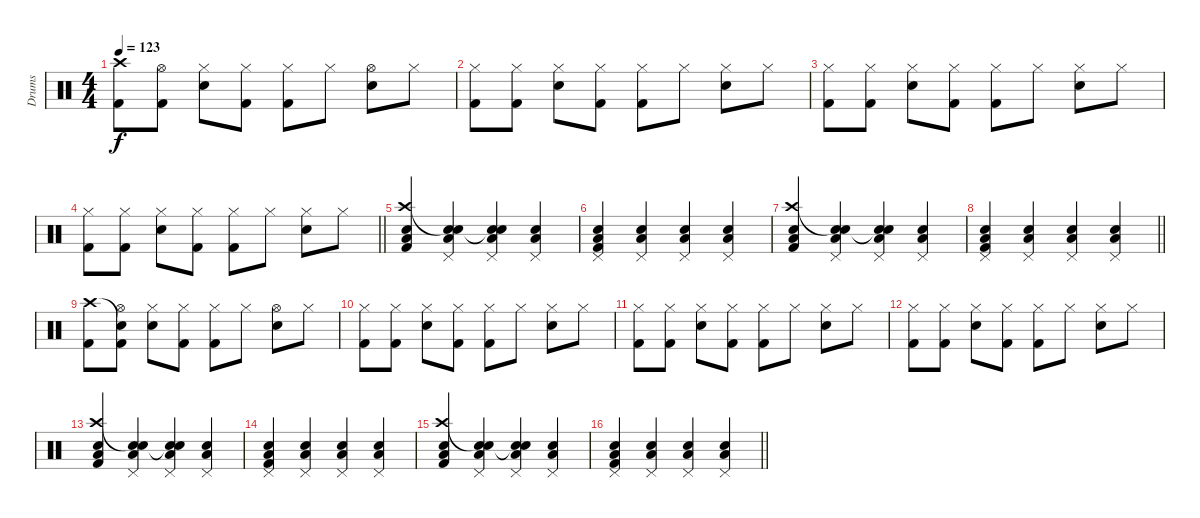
\track ("Drums" "Drums") {instrument percussion}
\staff {score}
\articulation defaults
\ts (4 4)
\tempo 123
\clef neutral
\ks c
("Kick (hit) 2" "Crash high (hit)").8{dy f} ("Kick (hit) 2" "Hi-Hat (open)").8 ("Electric Snare (hit)" "Hi-Hat (closed)").8 ("Kick (hit) 2" "Hi-Hat (closed)").8 ("Kick (hit) 2" "Hi-Hat (closed)").8 "Hi-Hat (closed)".8 ("Electric Snare (hit)" "Hi-Hat (open)").8 "Hi-Hat (closed)".8 |
("Kick (hit) 2" "Hi-Hat (closed)").8 ("Kick (hit) 2" "Hi-Hat (closed)").8 ("Electric Snare (hit)" "Hi-Hat (closed)").8 ("Kick (hit) 2" "Hi-Hat (closed)").8 ("Kick (hit) 2" "Hi-Hat (closed)").8 "Hi-Hat (closed)".8 ("Electric Snare (hit)" "Hi-Hat (closed)").8 "Hi-Hat (closed)".8 |
("Kick (hit) 2" "Hi-Hat (closed)").8 ("Kick (hit) 2" "Hi-Hat (closed)").8 ("Electric Snare (hit)" "Hi-Hat (closed)").8 ("Kick (hit) 2" "Hi-Hat (closed)").8 ("Kick (hit) 2" "Hi-Hat (closed)").8 "Hi-Hat (closed)".8 ("Electric Snare (hit)" "Hi-Hat (closed)").8 "Hi-Hat (closed)".8 |
\barLineRight lightlight
("Kick (hit) 2" "Hi-Hat (closed)").8 ("Kick (hit) 2" "Hi-Hat (closed)").8 ("Electric Snare (hit)" "Hi-Hat (closed)").8 ("Kick (hit) 2" "Hi-Hat (closed)").8 ("Kick (hit) 2" "Hi-Hat (closed)").8 "Hi-Hat (closed)".8 ("Electric Snare (hit)" "Hi-Hat (closed)").8 "Hi-Hat (closed)".8 |
("Crash high (hit)" "Low Floor Tom (hit)" "Kick (hit) 2" "Snare (hit) 2").4 ("Snare (hit)"{t} "Low Floor Tom (hit)" "Pedal Hi-Hat (hit)" "Snare (hit) 2").4 ("Snare (hit)"{t} "Low Floor Tom (hit)" "Pedal Hi-Hat (hit)" "Snare (hit) 2").4 ("Low Floor Tom (hit)" "Pedal Hi-Hat (hit)" "Snare (hit) 2").4 |
("Low Floor Tom (hit)" "Kick (hit) 2" "Pedal Hi-Hat (hit)" "Snare (hit) 2").4 ("Low Floor Tom (hit)" "Pedal Hi-Hat (hit)" "Snare (hit) 2").4 ("Low Floor Tom (hit)" "Pedal Hi-Hat (hit)" "Snare (hit) 2").4 ("Low Floor Tom (hit)" "Pedal Hi-Hat (hit)" "Snare (hit) 2").4 |
("Crash high (hit)" "Low Floor Tom (hit)" "Kick (hit) 2" "Snare (hit) 2").4 ("Snare (hit)"{t} "Low Floor Tom (hit)" "Pedal Hi-Hat (hit)" "Snare (hit) 2").4 ("Snare (hit)"{t} "Low Floor Tom (hit)" "Pedal Hi-Hat (hit)" "Snare (hit) 2").4 ("Low Floor Tom (hit)" "Pedal Hi-Hat (hit)" "Snare (hit) 2").4 |
\barLineRight lightlight
("Low Floor Tom (hit)" "Kick (hit) 2" "Pedal Hi-Hat (hit)" "Snare (hit) 2").4 ("Low Floor Tom (hit)" "Pedal Hi-Hat (hit)" "Snare (hit) 2").4 ("Low Floor Tom (hit)" "Pedal Hi-Hat (hit)" "Snare (hit) 2").4 ("Low Floor Tom (hit)" "Pedal Hi-Hat (hit)" "Snare (hit) 2").4 |
("Crash high (hit)" "Kick (hit) 2").8 ("Snare (hit)"{t} "Kick (hit) 2" "Hi-Hat (open)").8 ("Electric Snare (hit)" "Hi-Hat (closed)").8 ("Kick (hit) 2" "Hi-Hat (closed)").8 ("Kick (hit) 2" "Hi-Hat (closed)").8 "Hi-Hat (closed)".8 ("Electric Snare (hit)" "Hi-Hat (open)").8 "Hi-Hat (closed)".8 |
("Kick (hit) 2" "Hi-Hat (closed)").8 ("Kick (hit) 2" "Hi-Hat (closed)").8 ("Electric Snare (hit)" "Hi-Hat (closed)").8 ("Kick (hit) 2" "Hi-Hat (closed)").8 ("Kick (hit) 2" "Hi-Hat (closed)").8 "Hi-Hat (closed)".8 ("Electric Snare (hit)" "Hi-Hat (closed)").8 "Hi-Hat (closed)".8 |
("Kick (hit) 2" "Hi-Hat (closed)").8 ("Kick (hit) 2" "Hi-Hat (closed)").8 ("Electric Snare (hit)" "Hi-Hat (closed)").8 ("Kick (hit) 2" "Hi-Hat (closed)").8 ("Kick (hit) 2" "Hi-Hat (closed)").8 "Hi-Hat (closed)".8 ("Electric Snare (hit)" "Hi-Hat (closed)").8 "Hi-Hat (closed)".8 |
("Kick (hit) 2" "Hi-Hat (closed)").8 ("Kick (hit) 2" "Hi-Hat (closed)").8 ("Electric Snare (hit)" "Hi-Hat (closed)").8 ("Kick (hit) 2" "Hi-Hat (closed)").8 ("Kick (hit) 2" "Hi-Hat (closed)").8 "Hi-Hat (closed)".8 ("Electric Snare (hit)" "Hi-Hat (closed)").8 "Hi-Hat (closed)".8 |
("Crash high (hit)" "Low Floor Tom (hit)" "Kick (hit) 2" "Snare (hit) 2").4 ("Snare (hit)"{t} "Low Floor Tom (hit)" "Pedal Hi-Hat (hit)" "Snare (hit) 2").4 ("Snare (hit)"{t} "Low Floor Tom (hit)" "Pedal Hi-Hat (hit)" "Snare (hit) 2").4 ("Low Floor Tom (hit)" "Pedal Hi-Hat (hit)" "Snare (hit) 2").4 |
("Low Floor Tom (hit)" "Kick (hit) 2" "Pedal Hi-Hat (hit)" "Snare (hit) 2").4 ("Low Floor Tom (hit)" "Pedal Hi-Hat (hit)" "Snare (hit) 2").4 ("Low Floor Tom (hit)" "Pedal Hi-Hat (hit)" "Snare (hit) 2").4 ("Low Floor Tom (hit)" "Pedal Hi-Hat (hit)" "Snare (hit) 2").4 |
("Crash high (hit)" "Low Floor Tom (hit)" "Kick (hit) 2" "Snare (hit) 2").4 ("Snare (hit)"{t} "Low Floor Tom (hit)" "Pedal Hi-Hat (hit)" "Snare (hit) 2").4 ("Snare (hit)"{t} "Low Floor Tom (hit)" "Pedal Hi-Hat (hit)" "Snare (hit) 2").4 ("Low Floor Tom (hit)" "Pedal Hi-Hat (hit)" "Snare (hit) 2").4 |
\barLineRight lightlight
("Low Floor Tom (hit)" "Kick (hit) 2" "Pedal Hi-Hat (hit)" "Snare (hit) 2").4 ("Low Floor Tom (hit)" "Pedal Hi-Hat (hit)" "Snare (hit) 2").4 ("Low Floor Tom (hit)" "Pedal Hi-Hat (hit)" "Snare (hit) 2").4 ("Low Floor Tom (hit)" "Pedal Hi-Hat (hit)" "Snare (hit) 2").4
